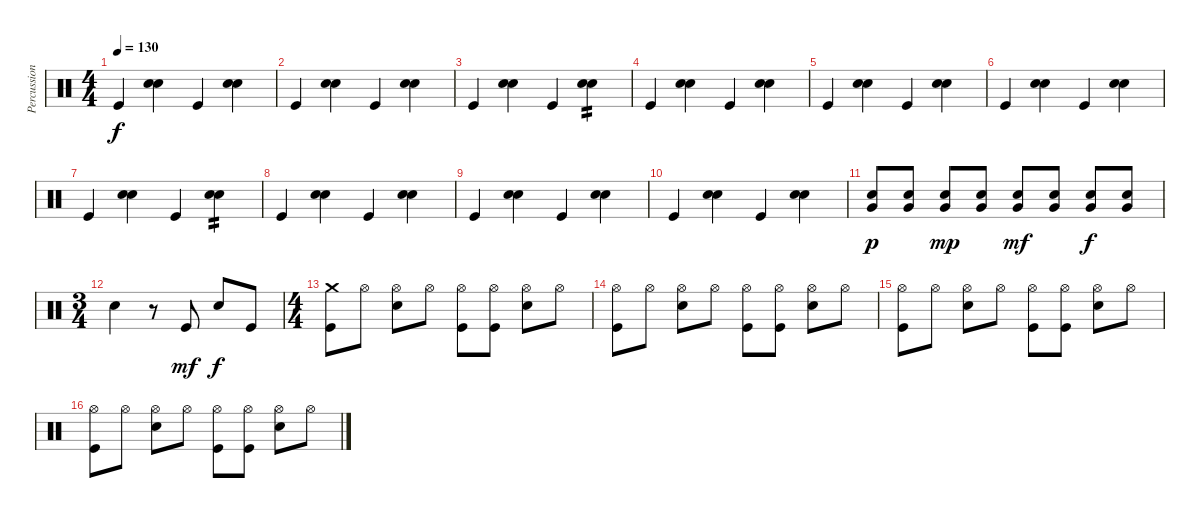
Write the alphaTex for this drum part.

\track ("Percussion" "Percussion") {instrument percussion}
\staff {score}
\articulation defaults
\ts (4 4)
\tempo 130
\clef neutral
\ks c "Kick (hit)".4{dy f}
("Snare (hit) 2" "Hand Clap (hit)").4 "Kick (hit)".4 ("Snare (hit) 2" "Hand Clap (hit)").4 |
"Kick (hit)".4 ("Snare (hit) 2" "Hand Clap (hit)").4 "Kick (hit)".4 ("Snare (hit) 2" "Hand Clap (hit)").4 |
"Kick (hit)".4 ("Snare (hit) 2" "Hand Clap (hit)").4 "Kick (hit)".4 ("Snare (hit) 2" "Hand Clap (hit)").4{tp 2} |
"Kick (hit)".4 ("Snare (hit) 2" "Hand Clap (hit)").4 "Kick (hit)".4 ("Snare (hit) 2" "Hand Clap (hit)").4 |
"Kick (hit)".4 ("Snare (hit) 2" "Hand Clap (hit)").4 "Kick (hit)".4 ("Snare (hit) 2" "Hand Clap (hit)").4 |
"Kick (hit)".4 ("Snare (hit) 2" "Hand Clap (hit)").4 "Kick (hit)".4 ("Snare (hit) 2" "Hand Clap (hit)").4 |
"Kick (hit)".4 ("Snare (hit) 2" "Hand Clap (hit)").4 "Kick (hit)".4 ("Snare (hit) 2" "Hand Clap (hit)").4{tp 2} |
"Kick (hit)".4 ("Snare (hit) 2" "Hand Clap (hit)").4 "Kick (hit)".4 ("Snare (hit) 2" "Hand Clap (hit)").4 |
"Kick (hit)".4 ("Snare (hit) 2" "Hand Clap (hit)").4 "Kick (hit)".4 ("Snare (hit) 2" "Hand Clap (hit)").4 |
"Kick (hit)".4 ("Snare (hit) 2" "Hand Clap (hit)").4 "Kick (hit)".4 ("Snare (hit) 2" "Hand Clap (hit)").4 |
("Snare (hit) 2" "Very Low Tom (hit)").8{dy p} ("Snare (hit) 2" "Very Low Tom (hit)").8 ("Snare (hit) 2" "Very Low Tom (hit)").8{dy mp} ("Snare (hit) 2" "Very Low Tom (hit)").8 ("Snare (hit) 2" "Very Low Tom (hit)").8{dy mf} ("Snare (hit) 2" "Very Low Tom (hit)").8 ("Snare (hit) 2" "Very Low Tom (hit)").8{dy f} ("Snare (hit) 2" "Very Low Tom (hit)").8 |
\ts (3 4)
"Snare (hit) 2".4 r.8 "Kick (hit)".8{dy mf} "Snare (hit) 2".8{dy f} "Kick (hit)".8 |
\ts (4 4)
("Crash medium (hit)" "Kick (hit)").8 "Hi-Hat (open)".8 ("Hi-Hat (open)" "Snare (hit) 2").8 "Hi-Hat (open)".8 ("Hi-Hat (open)" "Kick (hit)").8 ("Hi-Hat (open)" "Kick (hit)").8 ("Hi-Hat (open)" "Snare (hit) 2").8 "Hi-Hat (open)".8 |
("Hi-Hat (open)" "Kick (hit)").8 "Hi-Hat (open)".8 ("Hi-Hat (open)" "Snare (hit) 2").8 "Hi-Hat (open)".8 ("Hi-Hat (open)" "Kick (hit)").8 ("Hi-Hat (open)" "Kick (hit)").8 ("Hi-Hat (open)" "Snare (hit) 2").8 "Hi-Hat (open)".8 |
("Hi-Hat (open)" "Kick (hit)").8 "Hi-Hat (open)".8 ("Hi-Hat (open)" "Snare (hit) 2").8 "Hi-Hat (open)".8 ("Hi-Hat (open)" "Kick (hit)").8 ("Hi-Hat (open)" "Kick (hit)").8 ("Hi-Hat (open)" "Snare (hit) 2").8 "Hi-Hat (open)".8 |
("Hi-Hat (open)" "Kick (hit)").8 "Hi-Hat (open)".8 ("Hi-Hat (open)" "Snare (hit) 2").8 "Hi-Hat (open)".8 ("Hi-Hat (open)" "Kick (hit)").8 ("Hi-Hat (open)" "Kick (hit)").8 ("Hi-Hat (open)" "Snare (hit) 2").8 "Hi-Hat (open)".8
